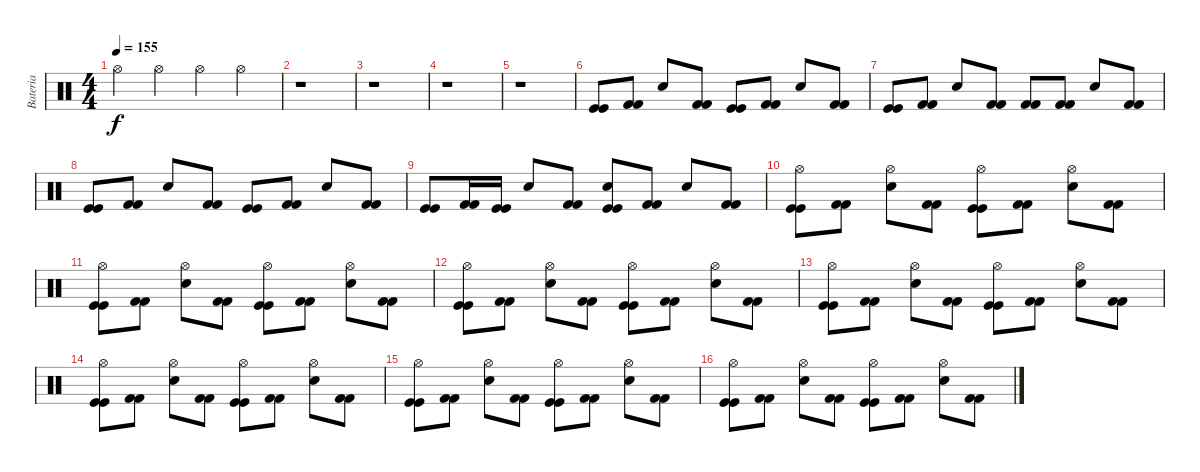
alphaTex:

\track ("Bateria" "Bateria") {instrument percussion}
\staff {score}
\articulation defaults
\ts (4 4)
\tempo 155
\clef neutral
\ks c "Hi-Hat (open)".4{dy f} "Hi-Hat (open)".4 "Hi-Hat (open)".4 "Hi-Hat (open)".4
|
r.1 |
r.1 |
r.1 |
r.1 |
("Kick (hit)" "Kick (hit)").8 ("Kick (hit) 2" "Kick (hit) 2").8 "Snare (hit) 2".8 ("Kick (hit) 2" "Kick (hit) 2").8 ("Kick (hit)" "Kick (hit)").8 ("Kick (hit) 2" "Kick (hit) 2").8 "Snare (hit) 2".8 ("Kick (hit) 2" "Kick (hit) 2").8 |
("Kick (hit)" "Kick (hit)").8 ("Kick (hit) 2" "Kick (hit) 2").8 "Snare (hit) 2".8 ("Kick (hit) 2" "Kick (hit) 2").8 ("Kick (hit) 2" "Kick (hit) 2").8 ("Kick (hit) 2" "Kick (hit) 2").8 "Snare (hit) 2".8 ("Kick (hit) 2" "Kick (hit) 2").8 |
("Kick (hit)" "Kick (hit)").8 ("Kick (hit) 2" "Kick (hit) 2").8 "Snare (hit) 2".8 ("Kick (hit) 2" "Kick (hit) 2").8 ("Kick (hit)" "Kick (hit)").8 ("Kick (hit) 2" "Kick (hit) 2").8 "Snare (hit) 2".8 ("Kick (hit) 2" "Kick (hit) 2").8 |
("Kick (hit)" "Kick (hit)").8 ("Kick (hit) 2" "Kick (hit) 2").16 ("Kick (hit)" "Kick (hit)").16 "Snare (hit) 2".8 ("Kick (hit) 2" "Kick (hit) 2").8 ("Kick (hit)" "Kick (hit)" "Snare (hit) 2").8 ("Kick (hit) 2" "Kick (hit) 2").8 "Snare (hit) 2".8 ("Kick (hit) 2" "Kick (hit) 2").8 |
("Kick (hit)" "Kick (hit)" "Hi-Hat (open)").8 ("Kick (hit) 2" "Kick (hit) 2").8 ("Snare (hit) 2" "Hi-Hat (open)").8 ("Kick (hit) 2" "Kick (hit) 2").8 ("Kick (hit)" "Kick (hit)" "Hi-Hat (open)").8 ("Kick (hit) 2" "Kick (hit) 2").8 ("Snare (hit) 2" "Hi-Hat (open)").8 ("Kick (hit) 2" "Kick (hit) 2").8 |
("Kick (hit)" "Kick (hit)" "Hi-Hat (open)").8 ("Kick (hit) 2" "Kick (hit) 2").8 ("Snare (hit) 2" "Hi-Hat (open)").8 ("Kick (hit) 2" "Kick (hit) 2").8 ("Kick (hit)" "Kick (hit)" "Hi-Hat (open)").8 ("Kick (hit) 2" "Kick (hit) 2").8 ("Snare (hit) 2" "Hi-Hat (open)").8 ("Kick (hit) 2" "Kick (hit) 2").8 |
("Kick (hit)" "Kick (hit)" "Hi-Hat (open)").8 ("Kick (hit) 2" "Kick (hit) 2").8 ("Snare (hit) 2" "Hi-Hat (open)").8 ("Kick (hit) 2" "Kick (hit) 2").8 ("Kick (hit)" "Kick (hit)" "Hi-Hat (open)").8 ("Kick (hit) 2" "Kick (hit) 2").8 ("Snare (hit) 2" "Hi-Hat (open)").8 ("Kick (hit) 2" "Kick (hit) 2").8 |
("Kick (hit)" "Kick (hit)" "Hi-Hat (open)").8 ("Kick (hit) 2" "Kick (hit) 2").8 ("Snare (hit) 2" "Hi-Hat (open)").8 ("Kick (hit) 2" "Kick (hit) 2").8 ("Kick (hit)" "Kick (hit)" "Hi-Hat (open)").8 ("Kick (hit) 2" "Kick (hit) 2").8 ("Snare (hit) 2" "Hi-Hat (open)").8 ("Kick (hit) 2" "Kick (hit) 2").8 |
("Kick (hit)" "Kick (hit)" "Hi-Hat (open)").8 ("Kick (hit) 2" "Kick (hit) 2").8 ("Snare (hit) 2" "Hi-Hat (open)").8 ("Kick (hit) 2" "Kick (hit) 2").8 ("Kick (hit)" "Kick (hit)" "Hi-Hat (open)").8 ("Kick (hit) 2" "Kick (hit) 2").8 ("Snare (hit) 2" "Hi-Hat (open)").8 ("Kick (hit) 2" "Kick (hit) 2").8 |
("Kick (hit)" "Kick (hit)" "Hi-Hat (open)").8 ("Kick (hit) 2" "Kick (hit) 2").8 ("Snare (hit) 2" "Hi-Hat (open)").8 ("Kick (hit) 2" "Kick (hit) 2").8 ("Kick (hit)" "Kick (hit)" "Hi-Hat (open)").8 ("Kick (hit) 2" "Kick (hit) 2").8 ("Snare (hit) 2" "Hi-Hat (open)").8 ("Kick (hit) 2" "Kick (hit) 2").8 |
("Kick (hit)" "Kick (hit)" "Hi-Hat (open)").8 ("Kick (hit) 2" "Kick (hit) 2").8 ("Snare (hit) 2" "Hi-Hat (open)").8 ("Kick (hit) 2" "Kick (hit) 2").8 ("Kick (hit)" "Kick (hit)" "Hi-Hat (open)").8 ("Kick (hit) 2" "Kick (hit) 2").8 ("Snare (hit) 2" "Hi-Hat (open)").8 ("Kick (hit) 2" "Kick (hit) 2").8
